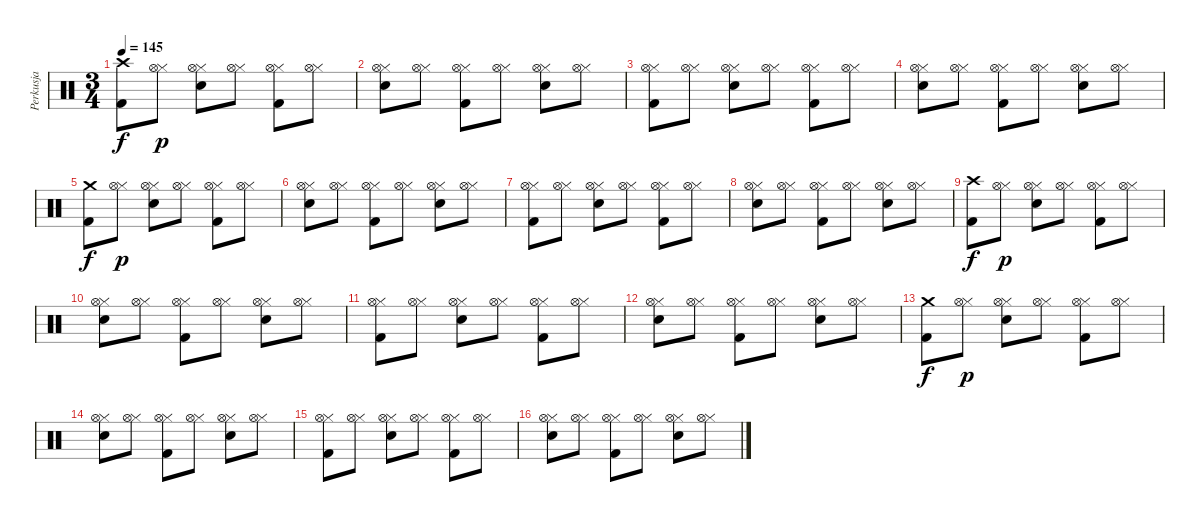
\track ("Perkusja" "Perkusja") {instrument percussion}
\staff {score}
\articulation defaults
\ts (3 4)
\tempo 145
\clef neutral
\ks c
("Kick (hit) 2" "Crash high (hit)").8{dy f} ("Hi-Hat (closed)" "Hi-Hat (open)").8{dy p} ("Electric Snare (hit)" "Hi-Hat (closed)" "Hi-Hat (open)").8 ("Hi-Hat (closed)" "Hi-Hat (open)").8 ("Kick (hit) 2" "Hi-Hat (closed)" "Hi-Hat (open)").8 ("Hi-Hat (closed)" "Hi-Hat (open)").8 |
("Electric Snare (hit)" "Hi-Hat (closed)" "Hi-Hat (open)").8 ("Hi-Hat (closed)" "Hi-Hat (open)").8 ("Kick (hit) 2" "Hi-Hat (closed)" "Hi-Hat (open)").8 ("Hi-Hat (closed)" "Hi-Hat (open)").8 ("Electric Snare (hit)" "Hi-Hat (closed)" "Hi-Hat (open)").8 ("Hi-Hat (closed)" "Hi-Hat (open)").8 |
("Kick (hit) 2" "Hi-Hat (closed)" "Hi-Hat (open)").8 ("Hi-Hat (closed)" "Hi-Hat (open)").8 ("Electric Snare (hit)" "Hi-Hat (closed)" "Hi-Hat (open)").8 ("Hi-Hat (closed)" "Hi-Hat (open)").8 ("Kick (hit) 2" "Hi-Hat (closed)" "Hi-Hat (open)").8 ("Hi-Hat (closed)" "Hi-Hat (open)").8 |
("Electric Snare (hit)" "Hi-Hat (closed)" "Hi-Hat (open)").8 ("Hi-Hat (closed)" "Hi-Hat (open)").8 ("Kick (hit) 2" "Hi-Hat (closed)" "Hi-Hat (open)").8 ("Hi-Hat (closed)" "Hi-Hat (open)").8 ("Electric Snare (hit)" "Hi-Hat (closed)" "Hi-Hat (open)").8 ("Hi-Hat (closed)" "Hi-Hat (open)").8 |
("Kick (hit) 2" "Crash medium (hit)").8{dy f} ("Hi-Hat (closed)" "Hi-Hat (open)").8{dy p} ("Electric Snare (hit)" "Hi-Hat (closed)" "Hi-Hat (open)").8 ("Hi-Hat (closed)" "Hi-Hat (open)").8 ("Kick (hit) 2" "Hi-Hat (closed)" "Hi-Hat (open)").8 ("Hi-Hat (closed)" "Hi-Hat (open)").8 |
("Electric Snare (hit)" "Hi-Hat (closed)" "Hi-Hat (open)").8 ("Hi-Hat (closed)" "Hi-Hat (open)").8 ("Kick (hit) 2" "Hi-Hat (closed)" "Hi-Hat (open)").8 ("Hi-Hat (closed)" "Hi-Hat (open)").8 ("Electric Snare (hit)" "Hi-Hat (closed)" "Hi-Hat (open)").8 ("Hi-Hat (closed)" "Hi-Hat (open)").8 |
("Kick (hit) 2" "Hi-Hat (closed)" "Hi-Hat (open)").8 ("Hi-Hat (closed)" "Hi-Hat (open)").8 ("Electric Snare (hit)" "Hi-Hat (closed)" "Hi-Hat (open)").8 ("Hi-Hat (closed)" "Hi-Hat (open)").8 ("Kick (hit) 2" "Hi-Hat (closed)" "Hi-Hat (open)").8 ("Hi-Hat (closed)" "Hi-Hat (open)").8 |
("Electric Snare (hit)" "Hi-Hat (closed)" "Hi-Hat (open)").8 ("Hi-Hat (closed)" "Hi-Hat (open)").8 ("Kick (hit) 2" "Hi-Hat (closed)" "Hi-Hat (open)").8 ("Hi-Hat (closed)" "Hi-Hat (open)").8 ("Electric Snare (hit)" "Hi-Hat (closed)" "Hi-Hat (open)").8 ("Hi-Hat (closed)" "Hi-Hat (open)").8 |
("Kick (hit) 2" "Crash high (hit)").8{dy f} ("Hi-Hat (closed)" "Hi-Hat (open)").8{dy p} ("Electric Snare (hit)" "Hi-Hat (closed)" "Hi-Hat (open)").8 ("Hi-Hat (closed)" "Hi-Hat (open)").8 ("Kick (hit) 2" "Hi-Hat (closed)" "Hi-Hat (open)").8 ("Hi-Hat (closed)" "Hi-Hat (open)").8 |
("Electric Snare (hit)" "Hi-Hat (closed)" "Hi-Hat (open)").8 ("Hi-Hat (closed)" "Hi-Hat (open)").8 ("Kick (hit) 2" "Hi-Hat (closed)" "Hi-Hat (open)").8 ("Hi-Hat (closed)" "Hi-Hat (open)").8 ("Electric Snare (hit)" "Hi-Hat (closed)" "Hi-Hat (open)").8 ("Hi-Hat (closed)" "Hi-Hat (open)").8 |
("Kick (hit) 2" "Hi-Hat (closed)" "Hi-Hat (open)").8 ("Hi-Hat (closed)" "Hi-Hat (open)").8 ("Electric Snare (hit)" "Hi-Hat (closed)" "Hi-Hat (open)").8 ("Hi-Hat (closed)" "Hi-Hat (open)").8 ("Kick (hit) 2" "Hi-Hat (closed)" "Hi-Hat (open)").8 ("Hi-Hat (closed)" "Hi-Hat (open)").8 |
("Electric Snare (hit)" "Hi-Hat (closed)" "Hi-Hat (open)").8 ("Hi-Hat (closed)" "Hi-Hat (open)").8 ("Kick (hit) 2" "Hi-Hat (closed)" "Hi-Hat (open)").8 ("Hi-Hat (closed)" "Hi-Hat (open)").8 ("Electric Snare (hit)" "Hi-Hat (closed)" "Hi-Hat (open)").8 ("Hi-Hat (closed)" "Hi-Hat (open)").8 |
("Kick (hit) 2" "Crash medium (hit)").8{dy f} ("Hi-Hat (closed)" "Hi-Hat (open)").8{dy p} ("Electric Snare (hit)" "Hi-Hat (closed)" "Hi-Hat (open)").8 ("Hi-Hat (closed)" "Hi-Hat (open)").8 ("Kick (hit) 2" "Hi-Hat (closed)" "Hi-Hat (open)").8 ("Hi-Hat (closed)" "Hi-Hat (open)").8 |
("Electric Snare (hit)" "Hi-Hat (closed)" "Hi-Hat (open)").8 ("Hi-Hat (closed)" "Hi-Hat (open)").8 ("Kick (hit) 2" "Hi-Hat (closed)" "Hi-Hat (open)").8 ("Hi-Hat (closed)" "Hi-Hat (open)").8 ("Electric Snare (hit)" "Hi-Hat (closed)" "Hi-Hat (open)").8 ("Hi-Hat (closed)" "Hi-Hat (open)").8 |
("Kick (hit) 2" "Hi-Hat (closed)" "Hi-Hat (open)").8 ("Hi-Hat (closed)" "Hi-Hat (open)").8 ("Electric Snare (hit)" "Hi-Hat (closed)" "Hi-Hat (open)").8 ("Hi-Hat (closed)" "Hi-Hat (open)").8 ("Kick (hit) 2" "Hi-Hat (closed)" "Hi-Hat (open)").8 ("Hi-Hat (closed)" "Hi-Hat (open)").8 |
("Electric Snare (hit)" "Hi-Hat (closed)" "Hi-Hat (open)").8 ("Hi-Hat (closed)" "Hi-Hat (open)").8 ("Kick (hit) 2" "Hi-Hat (closed)" "Hi-Hat (open)").8 ("Hi-Hat (closed)" "Hi-Hat (open)").8 ("Electric Snare (hit)" "Hi-Hat (closed)" "Hi-Hat (open)").8 ("Hi-Hat (closed)" "Hi-Hat (open)").8
